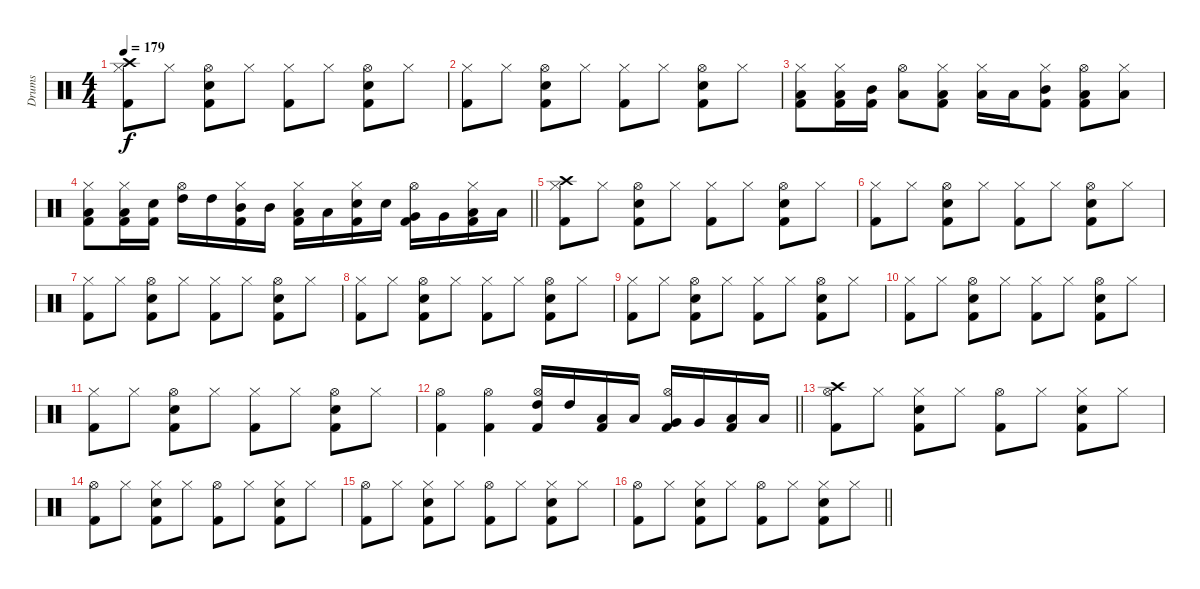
\track ("Drums" "Drums") {instrument percussion}
\staff {score}
\articulation defaults
\ts (4 4)
\tempo 179
\clef neutral
\ks c
("Hi-Hat (closed)" "Crash high (hit)" "Kick (hit) 2").8{dy f} "Hi-Hat (closed)".8 ("Hi-Hat (open)" "Snare (hit) 2" "Kick (hit) 2").8 "Hi-Hat (closed)".8 ("Hi-Hat (closed)" "Kick (hit) 2").8 "Hi-Hat (closed)".8 ("Hi-Hat (open)" "Snare (hit) 2" "Kick (hit) 2").8 "Hi-Hat (closed)".8 |
("Hi-Hat (closed)" "Kick (hit) 2").8 "Hi-Hat (closed)".8 ("Hi-Hat (open)" "Snare (hit) 2" "Kick (hit) 2").8 "Hi-Hat (closed)".8 ("Hi-Hat (closed)" "Kick (hit) 2").8 "Hi-Hat (closed)".8 ("Hi-Hat (open)" "Snare (hit) 2" "Kick (hit) 2").8 "Hi-Hat (closed)".8 |
("Hi-Hat (closed)" "Low Tom (hit)" "Kick (hit) 2").8 ("Hi-Hat (closed)" "Low Tom (hit)" "Kick (hit) 2").16 ("Mid Tom (hit)" "Kick (hit) 2").16 ("Hi-Hat (open)" "Low Tom (hit)").8 ("Hi-Hat (closed)" "Low Tom (hit)" "Kick (hit) 2").8 ("Hi-Hat (closed)" "Low Tom (hit)").16 "Low Tom (hit)".16 ("Hi-Hat (closed)" "Mid Tom (hit)" "Kick (hit) 2").8 ("Hi-Hat (open)" "Low Tom (hit)" "Kick (hit) 2").8 ("Hi-Hat (closed)" "Low Tom (hit)").8 |
\barLineRight lightlight
("Hi-Hat (closed)" "Low Tom (hit)" "Kick (hit) 2").8 ("Hi-Hat (closed)" "Low Tom (hit)" "Kick (hit) 2").16 ("Snare (hit) 2" "Kick (hit) 2").16 ("Hi-Hat (open)" "High Tom (hit)").16 "High Tom (hit)".16 ("Hi-Hat (closed)" "Mid Tom (hit)" "Kick (hit) 2").16 "Mid Tom (hit)".16 ("Hi-Hat (closed)" "Low Tom (hit)" "Kick (hit) 2").16 "Low Tom (hit)".16 ("Hi-Hat (closed)" "Snare (hit) 2" "Kick (hit) 2").16 "Snare (hit) 2".16 ("Hi-Hat (open)" "Very Low Tom (hit)" "Kick (hit) 2").16 "Very Low Tom (hit)".16 ("Hi-Hat (closed)" "Low Floor Tom (hit)" "Kick (hit) 2").16 "Low Floor Tom (hit)".16 |
("Hi-Hat (closed)" "Crash high (hit)" "Kick (hit) 2").8 "Hi-Hat (closed)".8 ("Hi-Hat (open)" "Snare (hit) 2" "Kick (hit) 2").8 "Hi-Hat (closed)".8 ("Hi-Hat (closed)" "Kick (hit) 2").8 "Hi-Hat (closed)".8 ("Hi-Hat (open)" "Snare (hit) 2" "Kick (hit) 2").8 "Hi-Hat (closed)".8 |
("Hi-Hat (closed)" "Kick (hit) 2").8 "Hi-Hat (closed)".8 ("Hi-Hat (open)" "Snare (hit) 2" "Kick (hit) 2").8 "Hi-Hat (closed)".8 ("Hi-Hat (closed)" "Kick (hit) 2").8 "Hi-Hat (closed)".8 ("Hi-Hat (open)" "Snare (hit) 2" "Kick (hit) 2").8 "Hi-Hat (closed)".8 |
("Hi-Hat (closed)" "Kick (hit) 2").8 "Hi-Hat (closed)".8 ("Hi-Hat (open)" "Snare (hit) 2" "Kick (hit) 2").8 "Hi-Hat (closed)".8 ("Hi-Hat (closed)" "Kick (hit) 2").8 "Hi-Hat (closed)".8 ("Hi-Hat (open)" "Snare (hit) 2" "Kick (hit) 2").8 "Hi-Hat (closed)".8 |
("Hi-Hat (closed)" "Kick (hit) 2").8 "Hi-Hat (closed)".8 ("Hi-Hat (open)" "Snare (hit) 2" "Kick (hit) 2").8 "Hi-Hat (closed)".8 ("Hi-Hat (closed)" "Kick (hit) 2").8 "Hi-Hat (closed)".8 ("Hi-Hat (open)" "Snare (hit) 2" "Kick (hit) 2").8 "Hi-Hat (closed)".8 |
("Hi-Hat (closed)" "Kick (hit) 2").8 "Hi-Hat (closed)".8 ("Hi-Hat (open)" "Snare (hit) 2" "Kick (hit) 2").8 "Hi-Hat (closed)".8 ("Hi-Hat (closed)" "Kick (hit) 2").8 "Hi-Hat (closed)".8 ("Hi-Hat (open)" "Snare (hit) 2" "Kick (hit) 2").8 "Hi-Hat (closed)".8 |
("Hi-Hat (closed)" "Kick (hit) 2").8 "Hi-Hat (closed)".8 ("Hi-Hat (open)" "Snare (hit) 2" "Kick (hit) 2").8 "Hi-Hat (closed)".8 ("Hi-Hat (closed)" "Kick (hit) 2").8 "Hi-Hat (closed)".8 ("Hi-Hat (open)" "Snare (hit) 2" "Kick (hit) 2").8 "Hi-Hat (closed)".8 |
("Hi-Hat (closed)" "Kick (hit) 2").8 "Hi-Hat (closed)".8 ("Hi-Hat (open)" "Snare (hit) 2" "Kick (hit) 2").8 "Hi-Hat (closed)".8 ("Hi-Hat (closed)" "Kick (hit) 2").8 "Hi-Hat (closed)".8 ("Hi-Hat (open)" "Snare (hit) 2" "Kick (hit) 2").8 "Hi-Hat (closed)".8 |
\barLineRight lightlight
("Hi-Hat (open)" "Kick (hit) 2").4 ("Hi-Hat (open)" "Kick (hit) 2").4 ("Hi-Hat (open)" "High Tom (hit)" "Kick (hit) 2").16 "High Tom (hit)".16 ("Low Tom (hit)" "Kick (hit) 2").16 "Low Tom (hit)".16 ("Hi-Hat (open)" "Very Low Tom (hit)" "Kick (hit) 2").16 "Very Low Tom (hit)".16 ("Low Floor Tom (hit)" "Kick (hit) 2").16 "Low Floor Tom (hit)".16 |
("Hi-Hat (open)" "Crash high (hit)" "Kick (hit) 2").8 "Hi-Hat (closed)".8 ("Hi-Hat (closed)" "Snare (hit) 2" "Kick (hit) 2").8 "Hi-Hat (closed)".8 ("Hi-Hat (open)" "Kick (hit) 2").8 "Hi-Hat (closed)".8 ("Hi-Hat (closed)" "Snare (hit) 2" "Kick (hit) 2").8 "Hi-Hat (closed)".8 |
("Hi-Hat (open)" "Kick (hit) 2").8 "Hi-Hat (closed)".8 ("Hi-Hat (closed)" "Snare (hit) 2" "Kick (hit) 2").8 "Hi-Hat (closed)".8 ("Hi-Hat (open)" "Kick (hit) 2").8 "Hi-Hat (closed)".8 ("Hi-Hat (closed)" "Snare (hit) 2" "Kick (hit) 2").8 "Hi-Hat (closed)".8 |
("Hi-Hat (open)" "Kick (hit) 2").8 "Hi-Hat (closed)".8 ("Hi-Hat (closed)" "Snare (hit) 2" "Kick (hit) 2").8 "Hi-Hat (closed)".8 ("Hi-Hat (open)" "Kick (hit) 2").8 "Hi-Hat (closed)".8 ("Hi-Hat (closed)" "Snare (hit) 2" "Kick (hit) 2").8 "Hi-Hat (closed)".8 |
\barLineRight lightlight
("Hi-Hat (open)" "Kick (hit) 2").8 "Hi-Hat (closed)".8 ("Hi-Hat (closed)" "Snare (hit) 2" "Kick (hit) 2").8 "Hi-Hat (closed)".8 ("Hi-Hat (open)" "Kick (hit) 2").8 "Hi-Hat (closed)".8 ("Hi-Hat (closed)" "Snare (hit) 2" "Kick (hit) 2").8 "Hi-Hat (closed)".8
